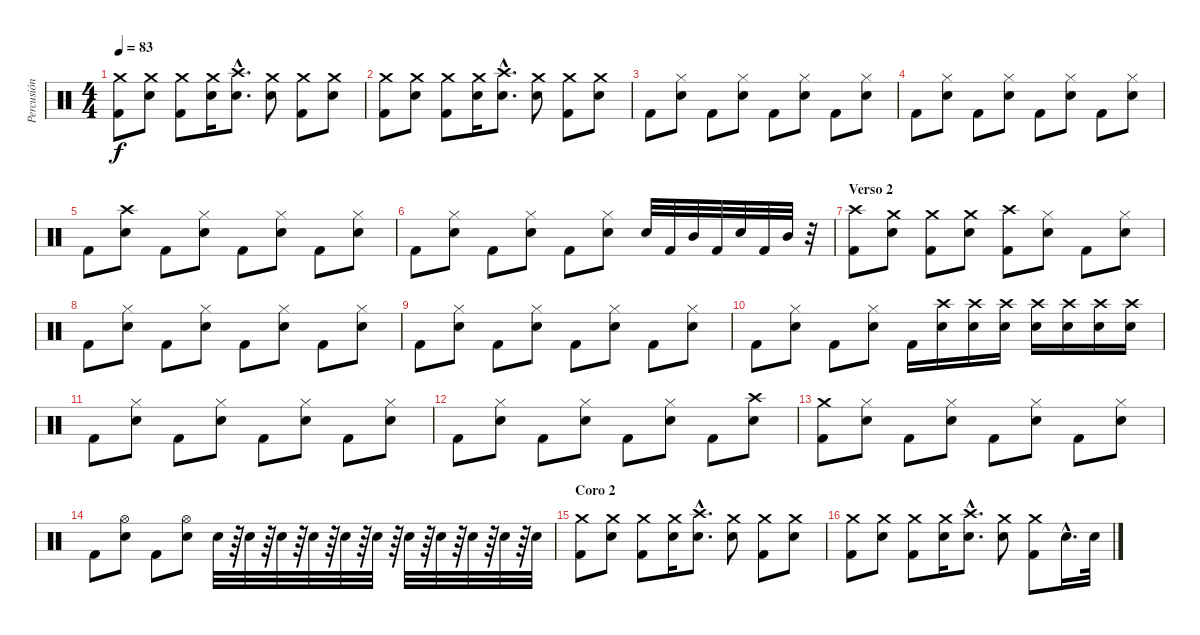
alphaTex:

\track ("Percusión" "Percusión") {instrument percussion}
\staff {score}
\articulation defaults
\ts (4 4)
\tempo 83
\clef neutral
\ks c
("Kick (hit) 2" "Crash medium (hit)").8{dy f} ("Snare (hit) 2" "Crash medium (hit)").8 ("Kick (hit) 2" "Crash medium (hit)").8 ("Snare (hit) 2" "Crash medium (hit)").16 ("Snare (hit) 2"{hac} "Crash high (hit)"{hac}).8{d} ("Snare (hit) 2" "Crash medium (hit)").8 ("Kick (hit) 2" "Crash medium (hit)").8 ("Snare (hit) 2" "Crash medium (hit)").8 |
("Kick (hit) 2" "Crash medium (hit)").8 ("Snare (hit) 2" "Crash medium (hit)").8 ("Kick (hit) 2" "Crash medium (hit)").8 ("Snare (hit) 2" "Crash medium (hit)").16 ("Snare (hit) 2"{hac} "Crash high (hit)"{hac}).8{d} ("Snare (hit) 2" "Crash medium (hit)").8 ("Kick (hit) 2" "Crash medium (hit)").8 ("Snare (hit) 2" "Crash medium (hit)").8 |
"Kick (hit) 2".8 ("Snare (hit) 2" "Hi-Hat (closed)").8 "Kick (hit) 2".8 ("Snare (hit) 2" "Hi-Hat (closed)").8 "Kick (hit) 2".8 ("Snare (hit) 2" "Hi-Hat (closed)").8 "Kick (hit) 2".8 ("Snare (hit) 2" "Hi-Hat (closed)").8 |
"Kick (hit) 2".8 ("Snare (hit) 2" "Hi-Hat (closed)").8 "Kick (hit) 2".8 ("Snare (hit) 2" "Hi-Hat (closed)").8 "Kick (hit) 2".8 ("Snare (hit) 2" "Hi-Hat (closed)").8 "Kick (hit) 2".8 ("Snare (hit) 2" "Hi-Hat (closed)").8 |
"Kick (hit) 2".8 ("Snare (hit) 2" "Crash high (hit)").8 "Kick (hit) 2".8 ("Snare (hit) 2" "Hi-Hat (closed)").8 "Kick (hit) 2".8 ("Snare (hit) 2" "Hi-Hat (closed)").8 "Kick (hit) 2".8 ("Snare (hit) 2" "Hi-Hat (closed)").8 |
"Kick (hit) 2".8 ("Snare (hit) 2" "Hi-Hat (closed)").8 "Kick (hit) 2".8 ("Snare (hit) 2" "Hi-Hat (closed)").8 "Kick (hit) 2".8 ("Snare (hit) 2" "Hi-Hat (closed)").8 "Snare (hit) 2".32 "Kick (hit) 2".32 "Mid Tom (hit)".32 "Kick (hit) 2".32 "Snare (hit) 2".32 "Kick (hit) 2".32 "Mid Tom (hit)".32 r.32 |
\section ("" "Verso 2")
("Kick (hit) 2" "Crash high (hit)").8 ("Snare (hit) 2" "Crash medium (hit)").8 ("Kick (hit) 2" "Crash medium (hit)").8 ("Snare (hit) 2" "Crash medium (hit)").8 ("Kick (hit) 2" "Crash high (hit)").8 ("Snare (hit) 2" "Hi-Hat (closed)").8 "Kick (hit) 2".8 ("Snare (hit) 2" "Hi-Hat (closed)").8 |
"Kick (hit) 2".8 ("Snare (hit) 2" "Hi-Hat (closed)").8 "Kick (hit) 2".8 ("Snare (hit) 2" "Hi-Hat (closed)").8 "Kick (hit) 2".8 ("Snare (hit) 2" "Hi-Hat (closed)").8 "Kick (hit) 2".8 ("Snare (hit) 2" "Hi-Hat (closed)").8 |
"Kick (hit) 2".8 ("Snare (hit) 2" "Hi-Hat (closed)").8 "Kick (hit) 2".8 ("Snare (hit) 2" "Hi-Hat (closed)").8 "Kick (hit) 2".8 ("Snare (hit) 2" "Hi-Hat (closed)").8 "Kick (hit) 2".8 ("Snare (hit) 2" "Hi-Hat (closed)").8 |
"Kick (hit) 2".8 ("Snare (hit) 2" "Hi-Hat (closed)").8 "Kick (hit) 2".8 ("Snare (hit) 2" "Hi-Hat (closed)").8 "Kick (hit) 2".16 ("Snare (hit) 2" "Crash high (hit)").16 ("Snare (hit) 2" "Crash high (hit)").16 ("Snare (hit) 2" "Crash high (hit)").16 ("Snare (hit) 2" "Crash high (hit)").16 ("Snare (hit) 2" "Crash high (hit)").16 ("Snare (hit) 2" "Crash high (hit)").16 ("Snare (hit) 2" "Crash high (hit)").16 |
"Kick (hit) 2".8 ("Snare (hit) 2" "Hi-Hat (closed)").8 "Kick (hit) 2".8 ("Snare (hit) 2" "Hi-Hat (closed)").8 "Kick (hit) 2".8 ("Snare (hit) 2" "Hi-Hat (closed)").8 "Kick (hit) 2".8 ("Snare (hit) 2" "Hi-Hat (closed)").8 |
"Kick (hit) 2".8 ("Snare (hit) 2" "Hi-Hat (closed)").8 "Kick (hit) 2".8 ("Snare (hit) 2" "Hi-Hat (closed)").8 "Kick (hit) 2".8 ("Snare (hit) 2" "Hi-Hat (closed)").8 "Kick (hit) 2".8 ("Snare (hit) 2" "Crash high (hit)").8 |
("Kick (hit) 2" "Crash medium (hit)").8 ("Snare (hit) 2" "Hi-Hat (closed)").8 "Kick (hit) 2".8 ("Snare (hit) 2" "Hi-Hat (closed)").8 "Kick (hit) 2".8 ("Snare (hit) 2" "Hi-Hat (closed)").8 "Kick (hit) 2".8 ("Snare (hit) 2" "Hi-Hat (closed)").8 |
"Kick (hit) 2".8 ("Snare (hit) 2" "Hi-Hat (open)").8 "Kick (hit) 2".8 ("Snare (hit) 2" "Hi-Hat (open)").8 "Snare (hit) 2".32 r.64 "Snare (hit) 2".32 r.64 "Snare (hit) 2".32 r.64 "Snare (hit) 2".32 r.64 "Snare (hit) 2".32 r.64 "Snare (hit) 2".32 r.64 "Snare (hit) 2".32 r.64 "Snare (hit) 2".32 r.64 "Snare (hit) 2".32 r.64 "Snare (hit) 2".32 r.64 "Snare (hit) 2".32 |
\section ("" "Coro 2")
("Kick (hit) 2" "Crash medium (hit)").8 ("Snare (hit) 2" "Crash medium (hit)").8 ("Kick (hit) 2" "Crash medium (hit)").8 ("Snare (hit) 2" "Crash medium (hit)").16 ("Snare (hit) 2"{hac} "Crash high (hit)"{hac}).8{d} ("Snare (hit) 2" "Crash medium (hit)").8 ("Kick (hit) 2" "Crash medium (hit)").8 ("Snare (hit) 2" "Crash medium (hit)").8 |
("Kick (hit) 2" "Crash medium (hit)").8 ("Snare (hit) 2" "Crash medium (hit)").8 ("Kick (hit) 2" "Crash medium (hit)").8 ("Snare (hit) 2" "Crash medium (hit)").16 ("Snare (hit) 2"{hac} "Crash high (hit)"{hac}).8{d} ("Snare (hit) 2" "Crash medium (hit)").8 ("Kick (hit) 2" "Crash medium (hit)").8 "Snare (hit) 2"{hac}.16{d} "Snare (hit) 2".32
